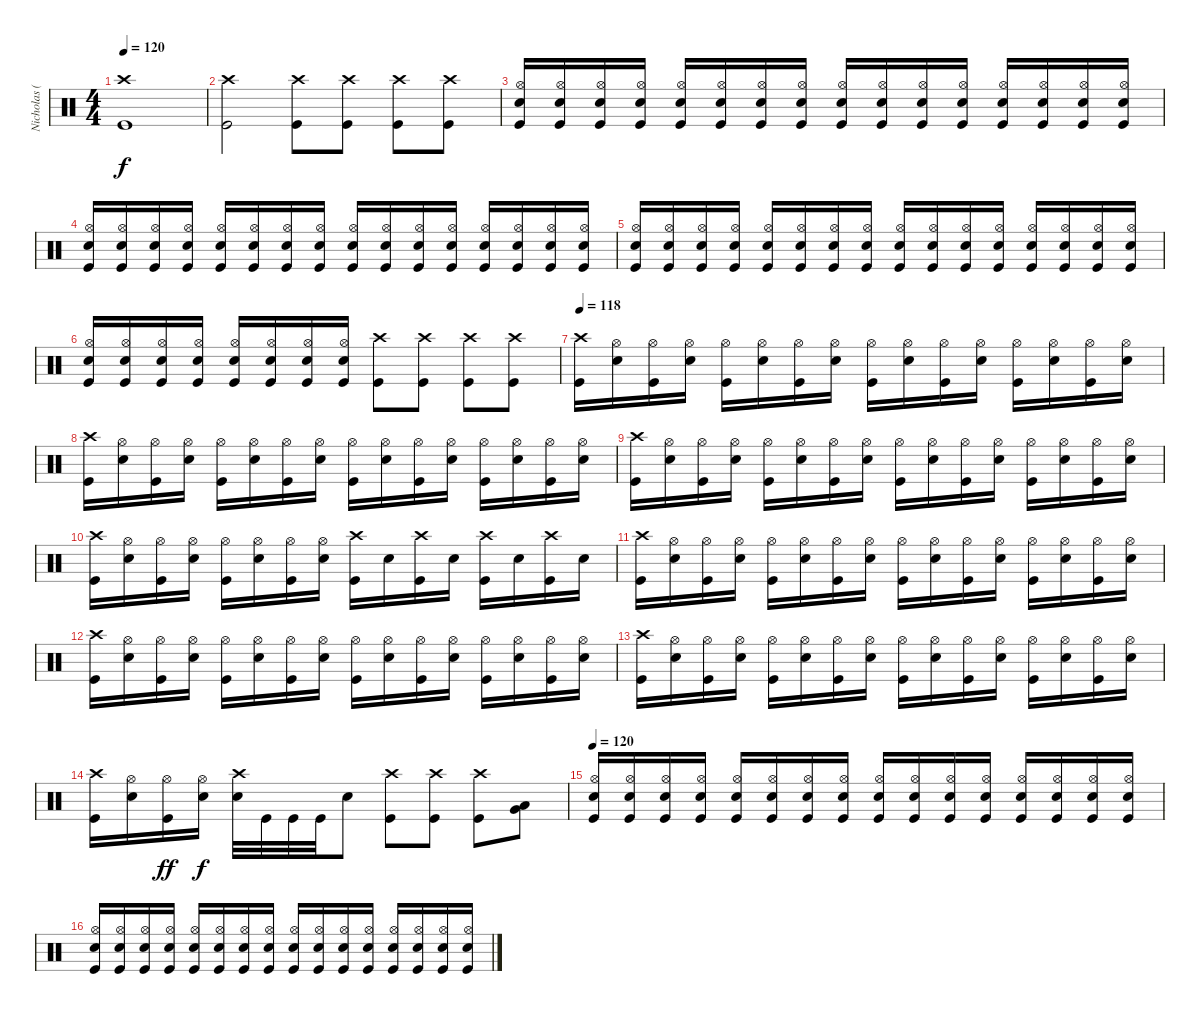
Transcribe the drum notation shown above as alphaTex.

\track ("Nicholas (Drums)" "Nicholas (") {instrument percussion}
\staff {score}
\articulation defaults
\ts (4 4)
\tempo 120
\clef neutral
\ks c
("Crash high (hit)" "Kick (hit)").1{dy f} |
("Crash high (hit)" "Kick (hit)").2 ("Crash high (hit)" "Kick (hit)").8 ("Crash high (hit)" "Kick (hit)").8 ("Crash high (hit)" "Kick (hit)").8 ("Crash high (hit)" "Kick (hit)").8 |
("Hi-Hat (open)" "Electric Snare (hit)" "Kick (hit)").16 ("Hi-Hat (open)" "Electric Snare (hit)" "Kick (hit)").16 ("Hi-Hat (open)" "Electric Snare (hit)" "Kick (hit)").16 ("Hi-Hat (open)" "Electric Snare (hit)" "Kick (hit)").16 ("Hi-Hat (open)" "Electric Snare (hit)" "Kick (hit)").16 ("Hi-Hat (open)" "Electric Snare (hit)" "Kick (hit)").16 ("Hi-Hat (open)" "Electric Snare (hit)" "Kick (hit)").16 ("Hi-Hat (open)" "Electric Snare (hit)" "Kick (hit)").16 ("Hi-Hat (open)" "Electric Snare (hit)" "Kick (hit)").16 ("Hi-Hat (open)" "Electric Snare (hit)" "Kick (hit)").16 ("Hi-Hat (open)" "Electric Snare (hit)" "Kick (hit)").16 ("Hi-Hat (open)" "Electric Snare (hit)" "Kick (hit)").16 ("Hi-Hat (open)" "Electric Snare (hit)" "Kick (hit)").16 ("Hi-Hat (open)" "Electric Snare (hit)" "Kick (hit)").16 ("Hi-Hat (open)" "Electric Snare (hit)" "Kick (hit)").16 ("Hi-Hat (open)" "Electric Snare (hit)" "Kick (hit)").16 |
("Hi-Hat (open)" "Electric Snare (hit)" "Kick (hit)").16 ("Hi-Hat (open)" "Electric Snare (hit)" "Kick (hit)").16 ("Hi-Hat (open)" "Electric Snare (hit)" "Kick (hit)").16 ("Hi-Hat (open)" "Electric Snare (hit)" "Kick (hit)").16 ("Hi-Hat (open)" "Electric Snare (hit)" "Kick (hit)").16 ("Hi-Hat (open)" "Electric Snare (hit)" "Kick (hit)").16 ("Hi-Hat (open)" "Electric Snare (hit)" "Kick (hit)").16 ("Hi-Hat (open)" "Electric Snare (hit)" "Kick (hit)").16 ("Hi-Hat (open)" "Electric Snare (hit)" "Kick (hit)").16 ("Hi-Hat (open)" "Electric Snare (hit)" "Kick (hit)").16 ("Hi-Hat (open)" "Electric Snare (hit)" "Kick (hit)").16 ("Hi-Hat (open)" "Electric Snare (hit)" "Kick (hit)").16 ("Hi-Hat (open)" "Electric Snare (hit)" "Kick (hit)").16 ("Hi-Hat (open)" "Electric Snare (hit)" "Kick (hit)").16 ("Hi-Hat (open)" "Electric Snare (hit)" "Kick (hit)").16 ("Hi-Hat (open)" "Electric Snare (hit)" "Kick (hit)").16 |
("Hi-Hat (open)" "Electric Snare (hit)" "Kick (hit)").16 ("Hi-Hat (open)" "Electric Snare (hit)" "Kick (hit)").16 ("Hi-Hat (open)" "Electric Snare (hit)" "Kick (hit)").16 ("Hi-Hat (open)" "Electric Snare (hit)" "Kick (hit)").16 ("Hi-Hat (open)" "Electric Snare (hit)" "Kick (hit)").16 ("Hi-Hat (open)" "Electric Snare (hit)" "Kick (hit)").16 ("Hi-Hat (open)" "Electric Snare (hit)" "Kick (hit)").16 ("Hi-Hat (open)" "Electric Snare (hit)" "Kick (hit)").16 ("Hi-Hat (open)" "Electric Snare (hit)" "Kick (hit)").16 ("Hi-Hat (open)" "Electric Snare (hit)" "Kick (hit)").16 ("Hi-Hat (open)" "Electric Snare (hit)" "Kick (hit)").16 ("Hi-Hat (open)" "Electric Snare (hit)" "Kick (hit)").16 ("Hi-Hat (open)" "Electric Snare (hit)" "Kick (hit)").16 ("Hi-Hat (open)" "Electric Snare (hit)" "Kick (hit)").16 ("Hi-Hat (open)" "Electric Snare (hit)" "Kick (hit)").16 ("Hi-Hat (open)" "Electric Snare (hit)" "Kick (hit)").16 |
("Hi-Hat (open)" "Electric Snare (hit)" "Kick (hit)").16 ("Hi-Hat (open)" "Electric Snare (hit)" "Kick (hit)").16 ("Hi-Hat (open)" "Electric Snare (hit)" "Kick (hit)").16 ("Hi-Hat (open)" "Electric Snare (hit)" "Kick (hit)").16 ("Hi-Hat (open)" "Electric Snare (hit)" "Kick (hit)").16 ("Hi-Hat (open)" "Electric Snare (hit)" "Kick (hit)").16 ("Hi-Hat (open)" "Electric Snare (hit)" "Kick (hit)").16 ("Hi-Hat (open)" "Electric Snare (hit)" "Kick (hit)").16 ("Crash high (hit)" "Kick (hit)").8 ("Crash high (hit)" "Kick (hit)").8 ("Crash high (hit)" "Kick (hit)").8 ("Crash high (hit)" "Kick (hit)").8 |
\tempo 118
("Crash high (hit)" "Kick (hit)").16 ("Hi-Hat (open)" "Electric Snare (hit)").16 ("Hi-Hat (open)" "Kick (hit)").16 ("Hi-Hat (open)" "Electric Snare (hit)").16 ("Hi-Hat (open)" "Kick (hit)").16 ("Hi-Hat (open)" "Electric Snare (hit)").16 ("Hi-Hat (open)" "Kick (hit)").16 ("Hi-Hat (open)" "Electric Snare (hit)").16 ("Hi-Hat (open)" "Kick (hit)").16 ("Hi-Hat (open)" "Electric Snare (hit)").16 ("Hi-Hat (open)" "Kick (hit)").16 ("Hi-Hat (open)" "Electric Snare (hit)").16 ("Hi-Hat (open)" "Kick (hit)").16 ("Hi-Hat (open)" "Electric Snare (hit)").16 ("Hi-Hat (open)" "Kick (hit)").16 ("Hi-Hat (open)" "Electric Snare (hit)").16 |
("Crash high (hit)" "Kick (hit)").16 ("Hi-Hat (open)" "Electric Snare (hit)").16 ("Hi-Hat (open)" "Kick (hit)").16 ("Hi-Hat (open)" "Electric Snare (hit)").16 ("Hi-Hat (open)" "Kick (hit)").16 ("Hi-Hat (open)" "Electric Snare (hit)").16 ("Hi-Hat (open)" "Kick (hit)").16 ("Hi-Hat (open)" "Electric Snare (hit)").16 ("Hi-Hat (open)" "Kick (hit)").16 ("Hi-Hat (open)" "Electric Snare (hit)").16 ("Hi-Hat (open)" "Kick (hit)").16 ("Hi-Hat (open)" "Electric Snare (hit)").16 ("Hi-Hat (open)" "Kick (hit)").16 ("Hi-Hat (open)" "Electric Snare (hit)").16 ("Hi-Hat (open)" "Kick (hit)").16 ("Hi-Hat (open)" "Electric Snare (hit)").16 |
("Crash high (hit)" "Kick (hit)").16 ("Hi-Hat (open)" "Electric Snare (hit)").16 ("Hi-Hat (open)" "Kick (hit)").16 ("Hi-Hat (open)" "Electric Snare (hit)").16 ("Hi-Hat (open)" "Kick (hit)").16 ("Hi-Hat (open)" "Electric Snare (hit)").16 ("Hi-Hat (open)" "Kick (hit)").16 ("Hi-Hat (open)" "Electric Snare (hit)").16 ("Hi-Hat (open)" "Kick (hit)").16 ("Hi-Hat (open)" "Electric Snare (hit)").16 ("Hi-Hat (open)" "Kick (hit)").16 ("Hi-Hat (open)" "Electric Snare (hit)").16 ("Hi-Hat (open)" "Kick (hit)").16 ("Hi-Hat (open)" "Electric Snare (hit)").16 ("Hi-Hat (open)" "Kick (hit)").16 ("Hi-Hat (open)" "Electric Snare (hit)").16 |
("Crash high (hit)" "Kick (hit)").16 ("Hi-Hat (open)" "Electric Snare (hit)").16 ("Hi-Hat (open)" "Kick (hit)").16 ("Hi-Hat (open)" "Electric Snare (hit)").16 ("Hi-Hat (open)" "Kick (hit)").16 ("Hi-Hat (open)" "Electric Snare (hit)").16 ("Hi-Hat (open)" "Kick (hit)").16 ("Hi-Hat (open)" "Electric Snare (hit)").16 ("Crash high (hit)" "Kick (hit)").16 "Electric Snare (hit)".16 ("Crash high (hit)" "Kick (hit)").16 "Electric Snare (hit)".16 ("Crash high (hit)" "Kick (hit)").16 "Electric Snare (hit)".16 ("Crash high (hit)" "Kick (hit)").16 "Electric Snare (hit)".16 |
("Crash high (hit)" "Kick (hit)").16 ("Hi-Hat (open)" "Electric Snare (hit)").16 ("Hi-Hat (open)" "Kick (hit)").16 ("Hi-Hat (open)" "Electric Snare (hit)").16 ("Hi-Hat (open)" "Kick (hit)").16 ("Hi-Hat (open)" "Electric Snare (hit)").16 ("Hi-Hat (open)" "Kick (hit)").16 ("Hi-Hat (open)" "Electric Snare (hit)").16 ("Hi-Hat (open)" "Kick (hit)").16 ("Hi-Hat (open)" "Electric Snare (hit)").16 ("Hi-Hat (open)" "Kick (hit)").16 ("Hi-Hat (open)" "Electric Snare (hit)").16 ("Hi-Hat (open)" "Kick (hit)").16 ("Hi-Hat (open)" "Electric Snare (hit)").16 ("Hi-Hat (open)" "Kick (hit)").16 ("Hi-Hat (open)" "Electric Snare (hit)").16 |
("Crash high (hit)" "Kick (hit)").16 ("Hi-Hat (open)" "Electric Snare (hit)").16 ("Hi-Hat (open)" "Kick (hit)").16 ("Hi-Hat (open)" "Electric Snare (hit)").16 ("Hi-Hat (open)" "Kick (hit)").16 ("Hi-Hat (open)" "Electric Snare (hit)").16 ("Hi-Hat (open)" "Kick (hit)").16 ("Hi-Hat (open)" "Electric Snare (hit)").16 ("Hi-Hat (open)" "Kick (hit)").16 ("Hi-Hat (open)" "Electric Snare (hit)").16 ("Hi-Hat (open)" "Kick (hit)").16 ("Hi-Hat (open)" "Electric Snare (hit)").16 ("Hi-Hat (open)" "Kick (hit)").16 ("Hi-Hat (open)" "Electric Snare (hit)").16 ("Hi-Hat (open)" "Kick (hit)").16 ("Hi-Hat (open)" "Electric Snare (hit)").16 |
("Crash high (hit)" "Kick (hit)").16 ("Hi-Hat (open)" "Electric Snare (hit)").16 ("Hi-Hat (open)" "Kick (hit)").16 ("Hi-Hat (open)" "Electric Snare (hit)").16 ("Hi-Hat (open)" "Kick (hit)").16 ("Hi-Hat (open)" "Electric Snare (hit)").16 ("Hi-Hat (open)" "Kick (hit)").16 ("Hi-Hat (open)" "Electric Snare (hit)").16 ("Hi-Hat (open)" "Kick (hit)").16 ("Hi-Hat (open)" "Electric Snare (hit)").16 ("Hi-Hat (open)" "Kick (hit)").16 ("Hi-Hat (open)" "Electric Snare (hit)").16 ("Hi-Hat (open)" "Kick (hit)").16 ("Hi-Hat (open)" "Electric Snare (hit)").16 ("Hi-Hat (open)" "Kick (hit)").16 ("Hi-Hat (open)" "Electric Snare (hit)").16 |
("Crash high (hit)" "Kick (hit)").16 ("Hi-Hat (open)" "Electric Snare (hit)").16 ("Hi-Hat (open)" "Kick (hit)").16{dy ff} ("Hi-Hat (open)" "Electric Snare (hit)").16{dy f} ("Crash high (hit)" "Electric Snare (hit)").32 "Kick (hit)".32 "Kick (hit)".32 "Kick (hit)".32 "Electric Snare (hit)".8 ("Crash high (hit)" "Kick (hit)").8 ("Crash high (hit)" "Kick (hit)").8 ("Crash high (hit)" "Kick (hit)").8 ("Low Tom (hit)" "Very Low Tom (hit)").8{bu 60} |
\tempo 120
("Hi-Hat (open)" "Electric Snare (hit)" "Kick (hit)").16 ("Hi-Hat (open)" "Electric Snare (hit)" "Kick (hit)").16 ("Hi-Hat (open)" "Electric Snare (hit)" "Kick (hit)").16 ("Hi-Hat (open)" "Electric Snare (hit)" "Kick (hit)").16 ("Hi-Hat (open)" "Electric Snare (hit)" "Kick (hit)").16 ("Hi-Hat (open)" "Electric Snare (hit)" "Kick (hit)").16 ("Hi-Hat (open)" "Electric Snare (hit)" "Kick (hit)").16 ("Hi-Hat (open)" "Electric Snare (hit)" "Kick (hit)").16 ("Hi-Hat (open)" "Electric Snare (hit)" "Kick (hit)").16 ("Hi-Hat (open)" "Electric Snare (hit)" "Kick (hit)").16 ("Hi-Hat (open)" "Electric Snare (hit)" "Kick (hit)").16 ("Hi-Hat (open)" "Electric Snare (hit)" "Kick (hit)").16 ("Hi-Hat (open)" "Electric Snare (hit)" "Kick (hit)").16 ("Hi-Hat (open)" "Electric Snare (hit)" "Kick (hit)").16 ("Hi-Hat (open)" "Electric Snare (hit)" "Kick (hit)").16 ("Hi-Hat (open)" "Electric Snare (hit)" "Kick (hit)").16 |
("Hi-Hat (open)" "Electric Snare (hit)" "Kick (hit)").16 ("Hi-Hat (open)" "Electric Snare (hit)" "Kick (hit)").16 ("Hi-Hat (open)" "Electric Snare (hit)" "Kick (hit)").16 ("Hi-Hat (open)" "Electric Snare (hit)" "Kick (hit)").16 ("Hi-Hat (open)" "Electric Snare (hit)" "Kick (hit)").16 ("Hi-Hat (open)" "Electric Snare (hit)" "Kick (hit)").16 ("Hi-Hat (open)" "Electric Snare (hit)" "Kick (hit)").16 ("Hi-Hat (open)" "Electric Snare (hit)" "Kick (hit)").16 ("Hi-Hat (open)" "Electric Snare (hit)" "Kick (hit)").16 ("Hi-Hat (open)" "Electric Snare (hit)" "Kick (hit)").16 ("Hi-Hat (open)" "Electric Snare (hit)" "Kick (hit)").16 ("Hi-Hat (open)" "Electric Snare (hit)" "Kick (hit)").16 ("Hi-Hat (open)" "Electric Snare (hit)" "Kick (hit)").16 ("Hi-Hat (open)" "Electric Snare (hit)" "Kick (hit)").16 ("Hi-Hat (open)" "Electric Snare (hit)" "Kick (hit)").16 ("Hi-Hat (open)" "Electric Snare (hit)" "Kick (hit)").16
